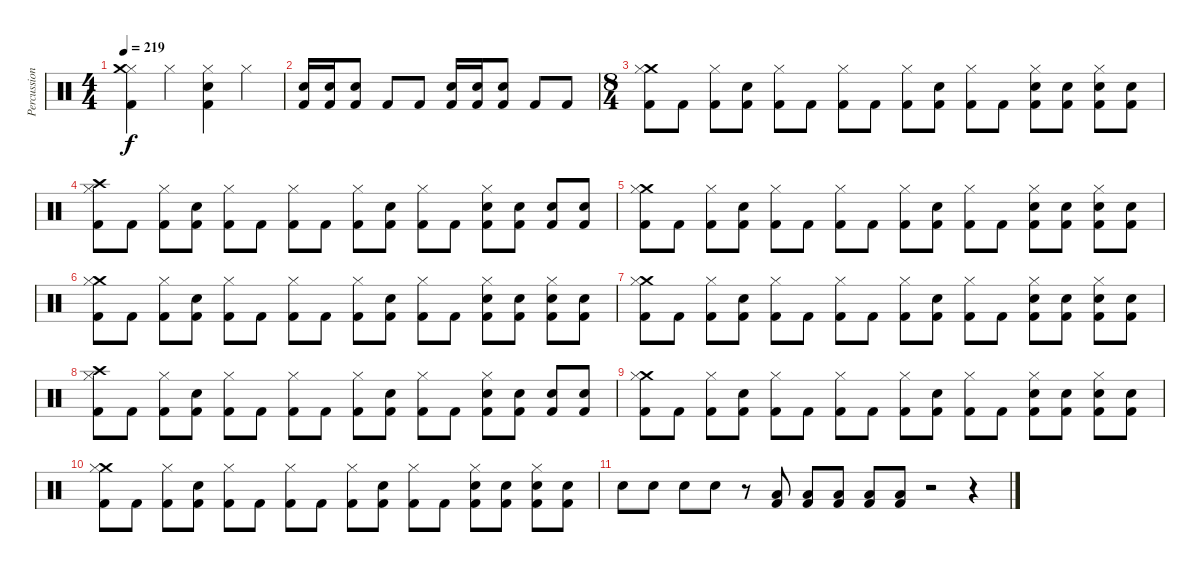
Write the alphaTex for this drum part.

\track ("Percussion" "Percussion") {instrument percussion}
\staff {score}
\articulation defaults
\ts (4 4)
\tempo 219
\clef neutral
\ks c
("Hi-Hat (closed)" "Crash medium (hit)" "Kick (hit) 2").4{dy f} "Hi-Hat (closed)".4 ("Hi-Hat (closed)" "Kick (hit) 2" "Electric Snare (hit)").4 "Hi-Hat (closed)".4 |
("Electric Snare (hit)" "Kick (hit) 2").16 ("Electric Snare (hit)" "Kick (hit) 2").16 ("Electric Snare (hit)" "Kick (hit) 2").8 "Kick (hit) 2".8 "Kick (hit) 2".8 ("Electric Snare (hit)" "Kick (hit) 2").16 ("Electric Snare (hit)" "Kick (hit) 2").16 ("Electric Snare (hit)" "Kick (hit) 2").8 "Kick (hit) 2".8 "Kick (hit) 2".8 |
\ts (8 4)
("Crash medium (hit)" "Hi-Hat (closed)" "Kick (hit) 2").8 "Kick (hit) 2".8 ("Hi-Hat (closed)" "Kick (hit) 2").8 ("Electric Snare (hit)" "Kick (hit) 2").8 ("Hi-Hat (closed)" "Kick (hit) 2").8 "Kick (hit) 2".8 ("Hi-Hat (closed)" "Kick (hit) 2").8 "Kick (hit) 2".8 ("Hi-Hat (closed)" "Kick (hit) 2").8 ("Electric Snare (hit)" "Kick (hit) 2").8 ("Hi-Hat (closed)" "Kick (hit) 2").8 "Kick (hit) 2".8 ("Hi-Hat (closed)" "Electric Snare (hit)" "Kick (hit) 2").8 ("Electric Snare (hit)" "Kick (hit) 2").8 ("Hi-Hat (closed)" "Electric Snare (hit)" "Kick (hit) 2").8 ("Electric Snare (hit)" "Kick (hit) 2").8 |
("Crash high (hit)" "Hi-Hat (closed)" "Kick (hit) 2").8 "Kick (hit) 2".8 ("Hi-Hat (closed)" "Kick (hit) 2").8 ("Electric Snare (hit)" "Kick (hit) 2").8 ("Hi-Hat (closed)" "Kick (hit) 2").8 "Kick (hit) 2".8 ("Hi-Hat (closed)" "Kick (hit) 2").8 "Kick (hit) 2".8 ("Hi-Hat (closed)" "Kick (hit) 2").8 ("Electric Snare (hit)" "Kick (hit) 2").8 ("Hi-Hat (closed)" "Kick (hit) 2").8 "Kick (hit) 2".8 ("Hi-Hat (closed)" "Electric Snare (hit)" "Kick (hit) 2").8 ("Electric Snare (hit)" "Kick (hit) 2").8 ("Electric Snare (hit)" "Kick (hit) 2").8 ("Electric Snare (hit)" "Kick (hit) 2").8 |
("Crash medium (hit)" "Hi-Hat (closed)" "Kick (hit) 2").8 "Kick (hit) 2".8 ("Hi-Hat (closed)" "Kick (hit) 2").8 ("Electric Snare (hit)" "Kick (hit) 2").8 ("Hi-Hat (closed)" "Kick (hit) 2").8 "Kick (hit) 2".8 ("Hi-Hat (closed)" "Kick (hit) 2").8 "Kick (hit) 2".8 ("Hi-Hat (closed)" "Kick (hit) 2").8 ("Electric Snare (hit)" "Kick (hit) 2").8 ("Hi-Hat (closed)" "Kick (hit) 2").8 "Kick (hit) 2".8 ("Hi-Hat (closed)" "Electric Snare (hit)" "Kick (hit) 2").8 ("Electric Snare (hit)" "Kick (hit) 2").8 ("Hi-Hat (closed)" "Electric Snare (hit)" "Kick (hit) 2").8 ("Electric Snare (hit)" "Kick (hit) 2").8 |
("Crash medium (hit)" "Hi-Hat (closed)" "Kick (hit) 2").8 "Kick (hit) 2".8 ("Hi-Hat (closed)" "Kick (hit) 2").8 ("Electric Snare (hit)" "Kick (hit) 2").8 ("Hi-Hat (closed)" "Kick (hit) 2").8 "Kick (hit) 2".8 ("Hi-Hat (closed)" "Kick (hit) 2").8 "Kick (hit) 2".8 ("Hi-Hat (closed)" "Kick (hit) 2").8 ("Electric Snare (hit)" "Kick (hit) 2").8 ("Hi-Hat (closed)" "Kick (hit) 2").8 "Kick (hit) 2".8 ("Hi-Hat (closed)" "Electric Snare (hit)" "Kick (hit) 2").8 ("Electric Snare (hit)" "Kick (hit) 2").8 ("Hi-Hat (closed)" "Electric Snare (hit)" "Kick (hit) 2").8 ("Electric Snare (hit)" "Kick (hit) 2").8 |
("Crash medium (hit)" "Hi-Hat (closed)" "Kick (hit) 2").8 "Kick (hit) 2".8 ("Hi-Hat (closed)" "Kick (hit) 2").8 ("Electric Snare (hit)" "Kick (hit) 2").8 ("Hi-Hat (closed)" "Kick (hit) 2").8 "Kick (hit) 2".8 ("Hi-Hat (closed)" "Kick (hit) 2").8 "Kick (hit) 2".8 ("Hi-Hat (closed)" "Kick (hit) 2").8 ("Electric Snare (hit)" "Kick (hit) 2").8 ("Hi-Hat (closed)" "Kick (hit) 2").8 "Kick (hit) 2".8 ("Hi-Hat (closed)" "Electric Snare (hit)" "Kick (hit) 2").8 ("Electric Snare (hit)" "Kick (hit) 2").8 ("Hi-Hat (closed)" "Electric Snare (hit)" "Kick (hit) 2").8 ("Electric Snare (hit)" "Kick (hit) 2").8 |
("Crash high (hit)" "Hi-Hat (closed)" "Kick (hit) 2").8 "Kick (hit) 2".8 ("Hi-Hat (closed)" "Kick (hit) 2").8 ("Electric Snare (hit)" "Kick (hit) 2").8 ("Hi-Hat (closed)" "Kick (hit) 2").8 "Kick (hit) 2".8 ("Hi-Hat (closed)" "Kick (hit) 2").8 "Kick (hit) 2".8 ("Hi-Hat (closed)" "Kick (hit) 2").8 ("Electric Snare (hit)" "Kick (hit) 2").8 ("Hi-Hat (closed)" "Kick (hit) 2").8 "Kick (hit) 2".8 ("Hi-Hat (closed)" "Electric Snare (hit)" "Kick (hit) 2").8 ("Electric Snare (hit)" "Kick (hit) 2").8 ("Electric Snare (hit)" "Kick (hit) 2").8 ("Electric Snare (hit)" "Kick (hit) 2").8 |
("Crash medium (hit)" "Hi-Hat (closed)" "Kick (hit) 2").8 "Kick (hit) 2".8 ("Hi-Hat (closed)" "Kick (hit) 2").8 ("Electric Snare (hit)" "Kick (hit) 2").8 ("Hi-Hat (closed)" "Kick (hit) 2").8 "Kick (hit) 2".8 ("Hi-Hat (closed)" "Kick (hit) 2").8 "Kick (hit) 2".8 ("Hi-Hat (closed)" "Kick (hit) 2").8 ("Electric Snare (hit)" "Kick (hit) 2").8 ("Hi-Hat (closed)" "Kick (hit) 2").8 "Kick (hit) 2".8 ("Hi-Hat (closed)" "Electric Snare (hit)" "Kick (hit) 2").8 ("Electric Snare (hit)" "Kick (hit) 2").8 ("Hi-Hat (closed)" "Electric Snare (hit)" "Kick (hit) 2").8 ("Electric Snare (hit)" "Kick (hit) 2").8 |
("Crash medium (hit)" "Hi-Hat (closed)" "Kick (hit) 2").8 "Kick (hit) 2".8 ("Hi-Hat (closed)" "Kick (hit) 2").8 ("Electric Snare (hit)" "Kick (hit) 2").8 ("Hi-Hat (closed)" "Kick (hit) 2").8 "Kick (hit) 2".8 ("Hi-Hat (closed)" "Kick (hit) 2").8 "Kick (hit) 2".8 ("Hi-Hat (closed)" "Kick (hit) 2").8 ("Electric Snare (hit)" "Kick (hit) 2").8 ("Hi-Hat (closed)" "Kick (hit) 2").8 "Kick (hit) 2".8 ("Hi-Hat (closed)" "Electric Snare (hit)" "Kick (hit) 2").8 ("Electric Snare (hit)" "Kick (hit) 2").8 ("Hi-Hat (closed)" "Electric Snare (hit)" "Kick (hit) 2").8 ("Electric Snare (hit)" "Kick (hit) 2").8 |
"Electric Snare (hit)".8 "Electric Snare (hit)".8 "Electric Snare (hit)".8 "Electric Snare (hit)".8 r.8 ("Low Tom (hit)" "Kick (hit) 2").8 ("Low Tom (hit)" "Kick (hit) 2").8 ("Low Tom (hit)" "Kick (hit) 2").8 ("Low Tom (hit)" "Kick (hit) 2").8 ("Low Tom (hit)" "Kick (hit) 2").8 r.2 r.4
